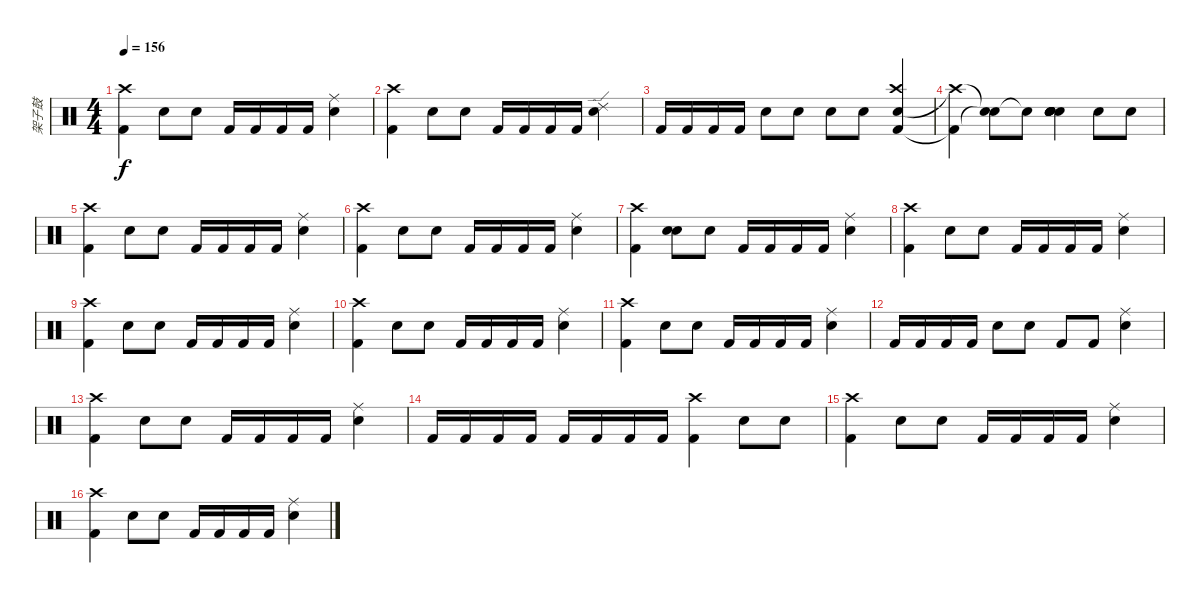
\track ("架子鼓" "架子鼓") {instrument percussion}
\staff {score}
\articulation defaults
\ts (4 4)
\tempo 156
\clef neutral
\ks c
("Kick (hit) 2" "Crash high (hit)").4{dy f} "Snare (hit) 2".8 "Snare (hit) 2".8 "Kick (hit) 2".16 "Kick (hit) 2".16 "Kick (hit) 2".16 "Kick (hit) 2".16 ("Electric Snare (hit)" "Ride (middle)").4 |
("Kick (hit) 2" "Crash high (hit)").4 "Snare (hit) 2".8 "Snare (hit) 2".8 "Kick (hit) 2".16 "Kick (hit) 2".16 "Kick (hit) 2".16 "Kick (hit) 2".16 ("Electric Snare (hit)" "Ride (edge) 2").4 |
"Kick (hit) 2".16 "Kick (hit) 2".16 "Kick (hit) 2".16 "Kick (hit) 2".16 "Snare (hit) 2".8 "Snare (hit) 2".8 "Snare (hit) 2".8 "Snare (hit) 2".8 ("Kick (hit) 2" "Electric Snare (hit)" "Crash high (hit)").4 |
("Kick (hit) 2"{t} "Crash high (hit)"{t}).4 ("Snare (hit) 2"{t} "Snare (hit)"{t}).8 "Snare (hit) 2"{t}.8 ("Snare (hit) 2" "Snare (hit) 2" "Snare (hit) 2" "Snare (hit) 2" "Snare (hit) 2" "Snare (hit) 2").4{bd 480} "Electric Snare (hit)".8 "Electric Snare (hit)".8 |
("Kick (hit) 2" "Crash high (hit)").4 "Snare (hit) 2".8 "Snare (hit) 2".8 "Kick (hit) 2".16 "Kick (hit) 2".16 "Kick (hit) 2".16 "Kick (hit) 2".16 ("Electric Snare (hit)" "Ride (middle)").4 |
("Kick (hit) 2" "Crash high (hit)").4 "Snare (hit) 2".8 "Snare (hit) 2".8 "Kick (hit) 2".16 "Kick (hit) 2".16 "Kick (hit) 2".16 "Kick (hit) 2".16 ("Electric Snare (hit)" "Ride (middle)").4 |
("Kick (hit) 2" "Crash high (hit)").4 ("Snare (hit) 2" "Snare (hit) 2").8 "Snare (hit) 2".8 "Kick (hit) 2".16 "Kick (hit) 2".16 "Kick (hit) 2".16 "Kick (hit) 2".16 ("Electric Snare (hit)" "Ride (middle)").4 |
("Kick (hit) 2" "Crash high (hit)").4 "Snare (hit) 2".8 "Snare (hit) 2".8 "Kick (hit) 2".16 "Kick (hit) 2".16 "Kick (hit) 2".16 "Kick (hit) 2".16 ("Electric Snare (hit)" "Ride (middle)").4 |
("Kick (hit) 2" "Crash high (hit)").4 "Snare (hit) 2".8 "Snare (hit) 2".8 "Kick (hit) 2".16 "Kick (hit) 2".16 "Kick (hit) 2".16 "Kick (hit) 2".16 ("Electric Snare (hit)" "Ride (middle)").4 |
("Kick (hit) 2" "Crash high (hit)").4 "Snare (hit) 2".8 "Snare (hit) 2".8 "Kick (hit) 2".16 "Kick (hit) 2".16 "Kick (hit) 2".16 "Kick (hit) 2".16 ("Electric Snare (hit)" "Ride (middle)").4 |
("Kick (hit) 2" "Crash high (hit)").4 "Snare (hit) 2".8 "Snare (hit) 2".8 "Kick (hit) 2".16 "Kick (hit) 2".16 "Kick (hit) 2".16 "Kick (hit) 2".16 ("Electric Snare (hit)" "Ride (middle)").4 |
"Kick (hit) 2".16 "Kick (hit) 2".16 "Kick (hit) 2".16 "Kick (hit) 2".16 "Snare (hit) 2".8 "Snare (hit) 2".8 "Kick (hit) 2".8 "Kick (hit) 2".8 ("Electric Snare (hit)" "Ride (middle)").4 |
("Kick (hit) 2" "Crash high (hit)").4 "Snare (hit) 2".8 "Snare (hit) 2".8 "Kick (hit) 2".16 "Kick (hit) 2".16 "Kick (hit) 2".16 "Kick (hit) 2".16 ("Electric Snare (hit)" "Ride (middle)").4 |
"Kick (hit) 2".16 "Kick (hit) 2".16 "Kick (hit) 2".16 "Kick (hit) 2".16 "Kick (hit) 2".16 "Kick (hit) 2".16 "Kick (hit) 2".16 "Kick (hit) 2".16 ("Kick (hit) 2" "Crash high (hit)").4 "Snare (hit) 2".8 "Snare (hit) 2".8 |
("Kick (hit) 2" "Crash high (hit)").4 "Snare (hit) 2".8 "Snare (hit) 2".8 "Kick (hit) 2".16 "Kick (hit) 2".16 "Kick (hit) 2".16 "Kick (hit) 2".16 ("Electric Snare (hit)" "Ride (middle)").4 |
("Kick (hit) 2" "Crash high (hit)").4 "Snare (hit) 2".8 "Snare (hit) 2".8 "Kick (hit) 2".16 "Kick (hit) 2".16 "Kick (hit) 2".16 "Kick (hit) 2".16 ("Electric Snare (hit)" "Ride (middle)").4
